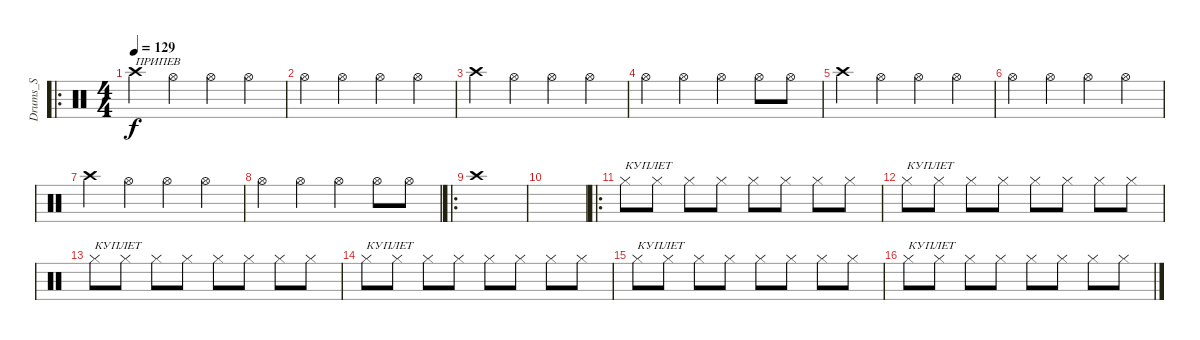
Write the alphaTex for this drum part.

\track ("Drums_S" "Drums_S") {instrument percussion}
\staff {score}
\articulation defaults
\ro
\ts (4 4)
\tempo 129
\clef neutral
\ks c "Crash high (hit)".4{txt "ПРИПЕВ" dy f} "Hi-Hat (open)".4 "Hi-Hat (open)".4 "Hi-Hat (open)".4
|
"Hi-Hat (open)".4 "Hi-Hat (open)".4 "Hi-Hat (open)".4 "Hi-Hat (open)".4 |
"Crash high (hit)".4 "Hi-Hat (open)".4 "Hi-Hat (open)".4 "Hi-Hat (open)".4 |
"Hi-Hat (open)".4 "Hi-Hat (open)".4 "Hi-Hat (open)".4 "Hi-Hat (open)".8 "Hi-Hat (open)".8 |
"Crash high (hit)".4 "Hi-Hat (open)".4 "Hi-Hat (open)".4 "Hi-Hat (open)".4 |
"Hi-Hat (open)".4 "Hi-Hat (open)".4 "Hi-Hat (open)".4 "Hi-Hat (open)".4 |
"Crash high (hit)".4 "Hi-Hat (open)".4 "Hi-Hat (open)".4 "Hi-Hat (open)".4 |
"Hi-Hat (open)".4 "Hi-Hat (open)".4 "Hi-Hat (open)".4 "Hi-Hat (open)".8 "Hi-Hat (open)".8 |
\ro "Crash high (hit)".1
|
|
\ro "Hi-Hat (closed)".8{txt "КУПЛЕТ"} "Hi-Hat (closed)".8 "Hi-Hat (closed)".8 "Hi-Hat (closed)".8 "Hi-Hat (closed)".8 "Hi-Hat (closed)".8 "Hi-Hat (closed)".8 "Hi-Hat (closed)".8
|
"Hi-Hat (closed)".8{txt "КУПЛЕТ"} "Hi-Hat (closed)".8 "Hi-Hat (closed)".8 "Hi-Hat (closed)".8 "Hi-Hat (closed)".8 "Hi-Hat (closed)".8 "Hi-Hat (closed)".8 "Hi-Hat (closed)".8 |
"Hi-Hat (closed)".8{txt "КУПЛЕТ"} "Hi-Hat (closed)".8 "Hi-Hat (closed)".8 "Hi-Hat (closed)".8 "Hi-Hat (closed)".8 "Hi-Hat (closed)".8 "Hi-Hat (closed)".8 "Hi-Hat (closed)".8 |
"Hi-Hat (closed)".8{txt "КУПЛЕТ"} "Hi-Hat (closed)".8 "Hi-Hat (closed)".8 "Hi-Hat (closed)".8 "Hi-Hat (closed)".8 "Hi-Hat (closed)".8 "Hi-Hat (closed)".8 "Hi-Hat (closed)".8 |
"Hi-Hat (closed)".8{txt "КУПЛЕТ"} "Hi-Hat (closed)".8 "Hi-Hat (closed)".8 "Hi-Hat (closed)".8 "Hi-Hat (closed)".8 "Hi-Hat (closed)".8 "Hi-Hat (closed)".8 "Hi-Hat (closed)".8 |
"Hi-Hat (closed)".8{txt "КУПЛЕТ"} "Hi-Hat (closed)".8 "Hi-Hat (closed)".8 "Hi-Hat (closed)".8 "Hi-Hat (closed)".8 "Hi-Hat (closed)".8 "Hi-Hat (closed)".8 "Hi-Hat (closed)".8
